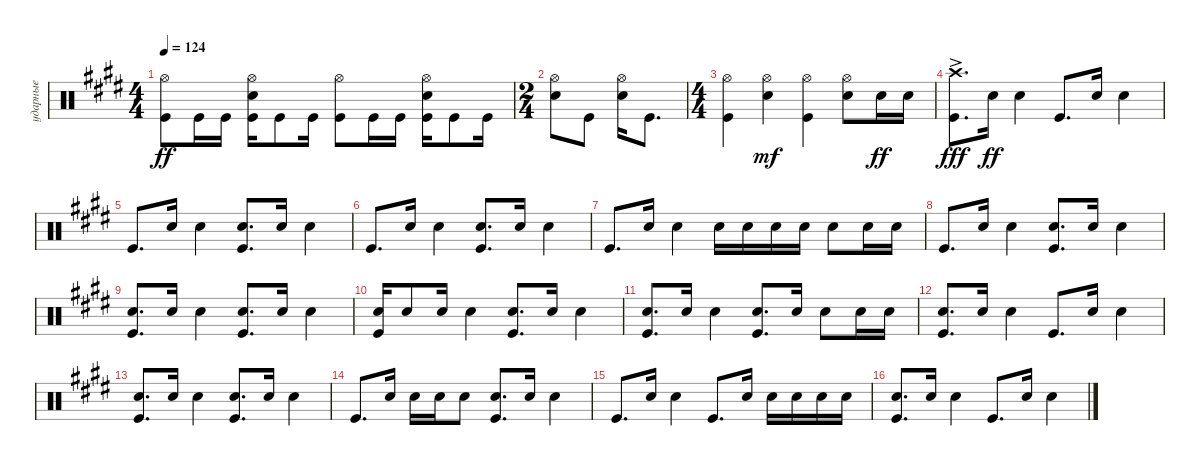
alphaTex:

\track ("ударные" "ударные") {instrument percussion}
\staff {score}
\articulation defaults
\ts (4 4)
\tempo 124
\clef neutral
\ks e
("Hi-Hat (open)" "Kick (hit)").8{dy ff} "Kick (hit)".16 "Kick (hit)".16 ("Hi-Hat (open)" "Snare (hit) 2" "Kick (hit)").16 "Kick (hit)".8 "Kick (hit)".16 ("Hi-Hat (open)" "Kick (hit)").8 "Kick (hit)".16 "Kick (hit)".16 ("Hi-Hat (open)" "Snare (hit) 2" "Kick (hit)").16 "Kick (hit)".8 "Kick (hit)".16 |
\ts (2 4)
("Snare (hit) 2" "Hi-Hat (open)").8 "Kick (hit)".8 ("Snare (hit) 2" "Hi-Hat (open)").16 "Kick (hit)".8{d} |
\ts (4 4)
("Kick (hit)" "Hi-Hat (open)").4 ("Snare (hit) 2" "Hi-Hat (open)").4{dy mf} ("Kick (hit)" "Hi-Hat (open)").4 ("Snare (hit) 2" "Hi-Hat (open)").8 "Snare (hit) 2".16{dy ff} "Snare (hit) 2".16 |
("Kick (hit)" "Crash high (hit)"{ac}).8{d dy fff} "Snare (hit) 2".16{dy ff} "Snare (hit) 2".4 "Kick (hit)".8{d} "Snare (hit) 2".16 "Snare (hit) 2".4 |
"Kick (hit)".8{d} "Snare (hit) 2".16 "Snare (hit) 2".4 ("Kick (hit)" "Snare (hit) 2").8{d} "Snare (hit) 2".16 "Snare (hit) 2".4 |
"Kick (hit)".8{d} "Snare (hit) 2".16 "Snare (hit) 2".4 ("Kick (hit)" "Snare (hit) 2").8{d} "Snare (hit) 2".16 "Snare (hit) 2".4 |
"Kick (hit)".8{d} "Snare (hit) 2".16 "Snare (hit) 2".4 "Snare (hit) 2".16 "Snare (hit) 2".16 "Snare (hit) 2".16 "Snare (hit) 2".16 "Snare (hit) 2".8 "Snare (hit) 2".16 "Snare (hit) 2".16 |
"Kick (hit)".8{d} "Snare (hit) 2".16 "Snare (hit) 2".4 ("Kick (hit)" "Snare (hit) 2").8{d} "Snare (hit) 2".16 "Snare (hit) 2".4 |
("Kick (hit)" "Snare (hit) 2").8{d} "Snare (hit) 2".16 "Snare (hit) 2".4 ("Kick (hit)" "Snare (hit) 2").8{d} "Snare (hit) 2".16 "Snare (hit) 2".4 |
("Kick (hit)" "Snare (hit) 2").16 "Snare (hit) 2".8 "Snare (hit) 2".16 "Snare (hit) 2".4 ("Kick (hit)" "Snare (hit) 2").8{d} "Snare (hit) 2".16 "Snare (hit) 2".4 |
("Kick (hit)" "Snare (hit) 2").8{d} "Snare (hit) 2".16 "Snare (hit) 2".4 ("Kick (hit)" "Snare (hit) 2").8{d} "Snare (hit) 2".16 "Snare (hit) 2".8 "Snare (hit) 2".16 "Snare (hit) 2".16 |
("Kick (hit)" "Snare (hit) 2").8{d} "Snare (hit) 2".16 "Snare (hit) 2".4 "Kick (hit)".8{d} "Snare (hit) 2".16 "Snare (hit) 2".4 |
("Kick (hit)" "Snare (hit) 2").8{d} "Snare (hit) 2".16 "Snare (hit) 2".4 ("Kick (hit)" "Snare (hit) 2").8{d} "Snare (hit) 2".16 "Snare (hit) 2".4 |
"Kick (hit)".8{d} "Snare (hit) 2".16 "Snare (hit) 2".16 "Snare (hit) 2".16 "Snare (hit) 2".8 ("Kick (hit)" "Snare (hit) 2").8{d} "Snare (hit) 2".16 "Snare (hit) 2".4 |
"Kick (hit)".8{d} "Snare (hit) 2".16 "Snare (hit) 2".4 "Kick (hit)".8{d} "Snare (hit) 2".16 "Snare (hit) 2".16 "Snare (hit) 2".16 "Snare (hit) 2".16 "Snare (hit) 2".16 |
("Kick (hit)" "Snare (hit) 2").8{d} "Snare (hit) 2".16 "Snare (hit) 2".4 "Kick (hit)".8{d} "Snare (hit) 2".16 "Snare (hit) 2".4
